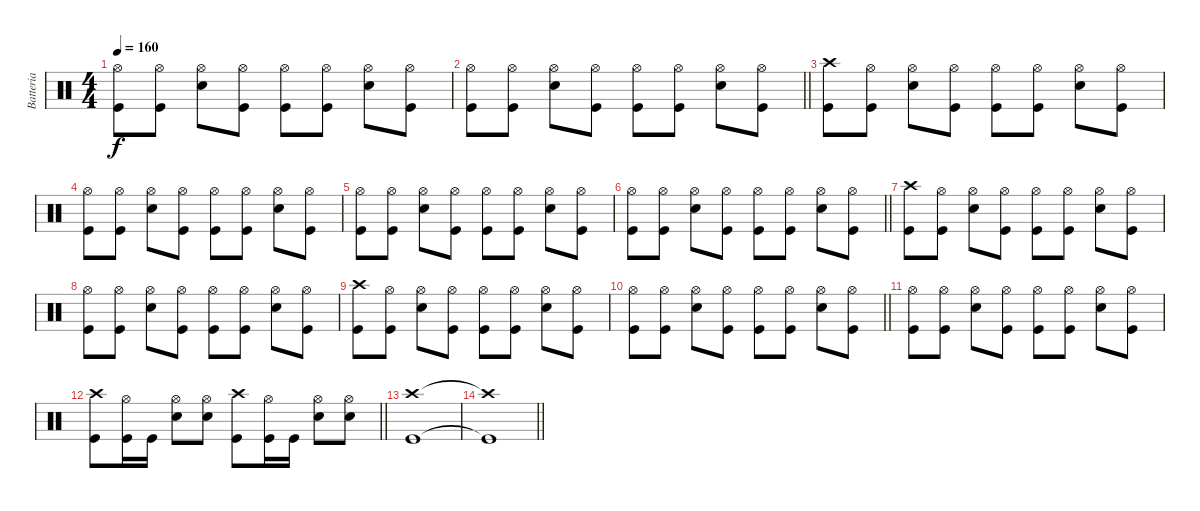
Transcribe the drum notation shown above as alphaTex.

\track ("Batteria" "Batteria") {instrument percussion}
\staff {score}
\articulation defaults
\ts (4 4)
\tempo 160
\clef neutral
\ks c
("Kick (hit)" "Hi-Hat (open)").8{dy f} ("Kick (hit)" "Hi-Hat (open)").8 ("Snare (hit) 2" "Hi-Hat (open)").8 ("Kick (hit)" "Hi-Hat (open)").8 ("Kick (hit)" "Hi-Hat (open)").8 ("Kick (hit)" "Hi-Hat (open)").8 ("Snare (hit) 2" "Hi-Hat (open)").8 ("Kick (hit)" "Hi-Hat (open)").8 |
\barLineRight lightlight
("Kick (hit)" "Hi-Hat (open)").8 ("Kick (hit)" "Hi-Hat (open)").8 ("Snare (hit) 2" "Hi-Hat (open)").8 ("Kick (hit)" "Hi-Hat (open)").8 ("Kick (hit)" "Hi-Hat (open)").8 ("Kick (hit)" "Hi-Hat (open)").8 ("Snare (hit) 2" "Hi-Hat (open)").8 ("Kick (hit)" "Hi-Hat (open)").8 |
("Kick (hit)" "Crash high (hit)").8 ("Kick (hit)" "Hi-Hat (open)").8 ("Snare (hit) 2" "Hi-Hat (open)").8 ("Kick (hit)" "Hi-Hat (open)").8 ("Kick (hit)" "Hi-Hat (open)").8 ("Kick (hit)" "Hi-Hat (open)").8 ("Snare (hit) 2" "Hi-Hat (open)").8 ("Kick (hit)" "Hi-Hat (open)").8 |
("Kick (hit)" "Hi-Hat (open)").8 ("Kick (hit)" "Hi-Hat (open)").8 ("Snare (hit) 2" "Hi-Hat (open)").8 ("Kick (hit)" "Hi-Hat (open)").8 ("Kick (hit)" "Hi-Hat (open)").8 ("Kick (hit)" "Hi-Hat (open)").8 ("Snare (hit) 2" "Hi-Hat (open)").8 ("Kick (hit)" "Hi-Hat (open)").8 |
("Kick (hit)" "Hi-Hat (open)").8 ("Kick (hit)" "Hi-Hat (open)").8 ("Snare (hit) 2" "Hi-Hat (open)").8 ("Kick (hit)" "Hi-Hat (open)").8 ("Kick (hit)" "Hi-Hat (open)").8 ("Kick (hit)" "Hi-Hat (open)").8 ("Snare (hit) 2" "Hi-Hat (open)").8 ("Kick (hit)" "Hi-Hat (open)").8 |
\barLineRight lightlight
("Kick (hit)" "Hi-Hat (open)").8 ("Kick (hit)" "Hi-Hat (open)").8 ("Snare (hit) 2" "Hi-Hat (open)").8 ("Kick (hit)" "Hi-Hat (open)").8 ("Kick (hit)" "Hi-Hat (open)").8 ("Kick (hit)" "Hi-Hat (open)").8 ("Snare (hit) 2" "Hi-Hat (open)").8 ("Kick (hit)" "Hi-Hat (open)").8 |
("Kick (hit)" "Crash high (hit)").8 ("Kick (hit)" "Hi-Hat (open)").8 ("Snare (hit) 2" "Hi-Hat (open)").8 ("Kick (hit)" "Hi-Hat (open)").8 ("Kick (hit)" "Hi-Hat (open)").8 ("Kick (hit)" "Hi-Hat (open)").8 ("Snare (hit) 2" "Hi-Hat (open)").8 ("Kick (hit)" "Hi-Hat (open)").8 |
("Kick (hit)" "Hi-Hat (open)").8 ("Kick (hit)" "Hi-Hat (open)").8 ("Snare (hit) 2" "Hi-Hat (open)").8 ("Kick (hit)" "Hi-Hat (open)").8 ("Kick (hit)" "Hi-Hat (open)").8 ("Kick (hit)" "Hi-Hat (open)").8 ("Snare (hit) 2" "Hi-Hat (open)").8 ("Kick (hit)" "Hi-Hat (open)").8 |
("Kick (hit)" "Crash high (hit)").8 ("Kick (hit)" "Hi-Hat (open)").8 ("Snare (hit) 2" "Hi-Hat (open)").8 ("Kick (hit)" "Hi-Hat (open)").8 ("Kick (hit)" "Hi-Hat (open)").8 ("Kick (hit)" "Hi-Hat (open)").8 ("Snare (hit) 2" "Hi-Hat (open)").8 ("Kick (hit)" "Hi-Hat (open)").8 |
\barLineRight lightlight
("Kick (hit)" "Hi-Hat (open)").8 ("Kick (hit)" "Hi-Hat (open)").8 ("Snare (hit) 2" "Hi-Hat (open)").8 ("Kick (hit)" "Hi-Hat (open)").8 ("Kick (hit)" "Hi-Hat (open)").8 ("Kick (hit)" "Hi-Hat (open)").8 ("Snare (hit) 2" "Hi-Hat (open)").8 ("Kick (hit)" "Hi-Hat (open)").8 |
("Kick (hit)" "Hi-Hat (open)").8 ("Kick (hit)" "Hi-Hat (open)").8 ("Snare (hit) 2" "Hi-Hat (open)").8 ("Kick (hit)" "Hi-Hat (open)").8 ("Kick (hit)" "Hi-Hat (open)").8 ("Kick (hit)" "Hi-Hat (open)").8 ("Snare (hit) 2" "Hi-Hat (open)").8 ("Kick (hit)" "Hi-Hat (open)").8 |
\barLineRight lightlight
("Kick (hit)" "Crash high (hit)").8 ("Kick (hit)" "Hi-Hat (open)").16 "Kick (hit)".16 ("Snare (hit) 2" "Hi-Hat (open)").8 ("Snare (hit) 2" "Hi-Hat (open)").8 ("Kick (hit)" "Crash high (hit)").8 ("Kick (hit)" "Hi-Hat (open)").16 "Kick (hit)".16 ("Snare (hit) 2" "Hi-Hat (open)").8 ("Snare (hit) 2" "Hi-Hat (open)").8 |
("Crash high (hit)" "Kick (hit)").1 |
\barLineRight lightlight
("Crash high (hit)"{t} "Kick (hit)"{t}).1
